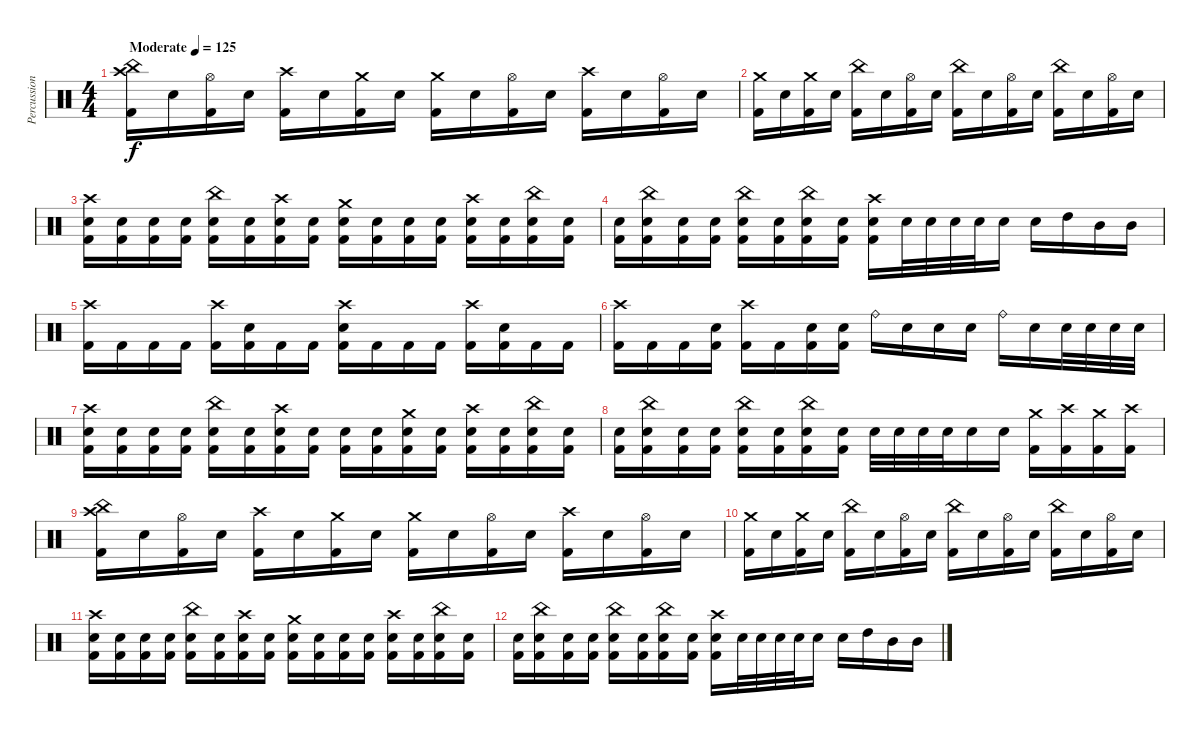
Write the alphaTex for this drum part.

\track ("Percussion" "Percussion") {instrument percussion}
\staff {score}
\articulation defaults
\ts (4 4)
\tempo (125 "Moderate")
\clef neutral
\ks c
("China (hit)" "Crash high (hit)" "Kick (hit) 2").16{dy f} "Electric Snare (hit)".16 ("Hi-Hat (open)" "Kick (hit) 2").16 "Electric Snare (hit)".16 ("Crash high (hit)" "Kick (hit) 2").16 "Electric Snare (hit)".16 ("Crash medium (hit)" "Kick (hit) 2").16 "Electric Snare (hit)".16 ("Crash medium (hit)" "Kick (hit) 2").16 "Electric Snare (hit)".16 ("Hi-Hat (open)" "Kick (hit) 2").16 "Electric Snare (hit)".16 ("Crash high (hit)" "Kick (hit) 2").16 "Electric Snare (hit)".16 ("Hi-Hat (open)" "Kick (hit) 2").16 "Electric Snare (hit)".16 |
("Crash medium (hit)" "Kick (hit) 2").16 "Electric Snare (hit)".16 ("Crash medium (hit)" "Kick (hit) 2").16 "Electric Snare (hit)".16 ("China (hit)" "Kick (hit) 2").16 "Electric Snare (hit)".16 ("Hi-Hat (open)" "Kick (hit) 2").16 "Electric Snare (hit)".16 ("China (hit)" "Kick (hit) 2").16 "Electric Snare (hit)".16 ("Hi-Hat (open)" "Kick (hit) 2").16 "Electric Snare (hit)".16 ("China (hit)" "Kick (hit) 2").16 "Electric Snare (hit)".16 ("Hi-Hat (open)" "Kick (hit) 2").16 "Electric Snare (hit)".16 |
("Crash high (hit)" "Electric Snare (hit)" "Kick (hit) 2").16 ("Electric Snare (hit)" "Kick (hit) 2").16 ("Electric Snare (hit)" "Kick (hit) 2").16 ("Electric Snare (hit)" "Kick (hit) 2").16 ("China (hit)" "Electric Snare (hit)" "Kick (hit) 2").16 ("Electric Snare (hit)" "Kick (hit) 2").16 ("Crash high (hit)" "Electric Snare (hit)" "Kick (hit) 2").16 ("Electric Snare (hit)" "Kick (hit) 2").16 ("Crash medium (hit)" "Electric Snare (hit)" "Kick (hit) 2").16 ("Electric Snare (hit)" "Kick (hit) 2").16 ("Electric Snare (hit)" "Kick (hit) 2").16 ("Electric Snare (hit)" "Kick (hit) 2").16 ("Crash high (hit)" "Electric Snare (hit)" "Kick (hit) 2").16 ("Electric Snare (hit)" "Kick (hit) 2").16 ("China (hit)" "Electric Snare (hit)" "Kick (hit) 2").16 ("Electric Snare (hit)" "Kick (hit) 2").16 |
("Electric Snare (hit)" "Kick (hit) 2").16 ("China (hit)" "Electric Snare (hit)" "Kick (hit) 2").16 ("Electric Snare (hit)" "Kick (hit) 2").16 ("Electric Snare (hit)" "Kick (hit) 2").16 ("China (hit)" "Electric Snare (hit)" "Kick (hit) 2").16 ("Electric Snare (hit)" "Kick (hit) 2").16 ("China (hit)" "Electric Snare (hit)" "Kick (hit) 2").16 ("Electric Snare (hit)" "Kick (hit) 2").16 ("Crash high (hit)" "Electric Snare (hit)" "Kick (hit) 2").16 "Electric Snare (hit)".32 "Electric Snare (hit)".32 "Electric Snare (hit)".32 "Electric Snare (hit)".32 "Electric Snare (hit)".16 "Electric Snare (hit)".16 "High Tom (hit)".16 "Mid Tom (hit)".16 "Mid Tom (hit)".16 |
("Crash high (hit)" "Kick (hit) 2").16 "Kick (hit) 2".16 "Kick (hit) 2".16 "Kick (hit) 2".16 ("Crash high (hit)" "Kick (hit) 2").16 ("Electric Snare (hit)" "Kick (hit) 2").16 "Kick (hit) 2".16 "Kick (hit) 2".16 ("Crash high (hit)" "Electric Snare (hit)" "Kick (hit) 2").16 "Kick (hit) 2".16 "Kick (hit) 2".16 "Kick (hit) 2".16 ("Crash high (hit)" "Kick (hit) 2").16 ("Electric Snare (hit)" "Kick (hit) 2").16 "Kick (hit) 2".16 "Kick (hit) 2".16 |
("Crash high (hit)" "Kick (hit) 2").16 "Kick (hit) 2".16 "Kick (hit) 2".16 ("Electric Snare (hit)" "Kick (hit) 2").16 ("Crash high (hit)" "Kick (hit) 2").16 "Kick (hit) 2".16 ("Electric Snare (hit)" "Kick (hit) 2").16 ("Electric Snare (hit)" "Kick (hit) 2").16 "Ride (bell)".16 "Electric Snare (hit)".16 "Electric Snare (hit)".16 "Electric Snare (hit)".16 "Ride (bell)".16 "Electric Snare (hit)".16 "Electric Snare (hit)".32 "Electric Snare (hit)".32 "Electric Snare (hit)".32 "Electric Snare (hit)".32 |
("Crash high (hit)" "Electric Snare (hit)" "Kick (hit) 2").16 ("Electric Snare (hit)" "Kick (hit) 2").16 ("Electric Snare (hit)" "Kick (hit) 2").16 ("Electric Snare (hit)" "Kick (hit) 2").16 ("China (hit)" "Electric Snare (hit)" "Kick (hit) 2").16 ("Electric Snare (hit)" "Kick (hit) 2").16 ("Crash high (hit)" "Electric Snare (hit)" "Kick (hit) 2").16 ("Electric Snare (hit)" "Kick (hit) 2").16 ("Electric Snare (hit)" "Kick (hit) 2").16 ("Electric Snare (hit)" "Kick (hit) 2").16 ("Crash medium (hit)" "Electric Snare (hit)" "Kick (hit) 2").16 ("Electric Snare (hit)" "Kick (hit) 2").16 ("Crash high (hit)" "Electric Snare (hit)" "Kick (hit) 2").16 ("Electric Snare (hit)" "Kick (hit) 2").16 ("China (hit)" "Electric Snare (hit)" "Kick (hit) 2").16 ("Electric Snare (hit)" "Kick (hit) 2").16 |
("Electric Snare (hit)" "Kick (hit) 2").16 ("China (hit)" "Electric Snare (hit)" "Kick (hit) 2").16 ("Electric Snare (hit)" "Kick (hit) 2").16 ("Electric Snare (hit)" "Kick (hit) 2").16 ("China (hit)" "Electric Snare (hit)" "Kick (hit) 2").16 ("Electric Snare (hit)" "Kick (hit) 2").16 ("China (hit)" "Electric Snare (hit)" "Kick (hit) 2").16 ("Electric Snare (hit)" "Kick (hit) 2").16 "Electric Snare (hit)".32 "Electric Snare (hit)".32 "Electric Snare (hit)".32 "Electric Snare (hit)".32 "Electric Snare (hit)".16 "Electric Snare (hit)".16 ("Crash medium (hit)" "Kick (hit) 2").16 ("Crash high (hit)" "Kick (hit) 2").16 ("Crash medium (hit)" "Kick (hit) 2").16 ("Crash high (hit)" "Kick (hit) 2").16 |
("China (hit)" "Crash high (hit)" "Kick (hit) 2").16 "Electric Snare (hit)".16 ("Hi-Hat (open)" "Kick (hit) 2").16 "Electric Snare (hit)".16 ("Crash high (hit)" "Kick (hit) 2").16 "Electric Snare (hit)".16 ("Crash medium (hit)" "Kick (hit) 2").16 "Electric Snare (hit)".16 ("Crash medium (hit)" "Kick (hit) 2").16 "Electric Snare (hit)".16 ("Hi-Hat (open)" "Kick (hit) 2").16 "Electric Snare (hit)".16 ("Crash high (hit)" "Kick (hit) 2").16 "Electric Snare (hit)".16 ("Hi-Hat (open)" "Kick (hit) 2").16 "Electric Snare (hit)".16 |
("Crash medium (hit)" "Kick (hit) 2").16 "Electric Snare (hit)".16 ("Crash medium (hit)" "Kick (hit) 2").16 "Electric Snare (hit)".16 ("China (hit)" "Kick (hit) 2").16 "Electric Snare (hit)".16 ("Hi-Hat (open)" "Kick (hit) 2").16 "Electric Snare (hit)".16 ("China (hit)" "Kick (hit) 2").16 "Electric Snare (hit)".16 ("Hi-Hat (open)" "Kick (hit) 2").16 "Electric Snare (hit)".16 ("China (hit)" "Kick (hit) 2").16 "Electric Snare (hit)".16 ("Hi-Hat (open)" "Kick (hit) 2").16 "Electric Snare (hit)".16 |
("Crash high (hit)" "Electric Snare (hit)" "Kick (hit) 2").16 ("Electric Snare (hit)" "Kick (hit) 2").16 ("Electric Snare (hit)" "Kick (hit) 2").16 ("Electric Snare (hit)" "Kick (hit) 2").16 ("China (hit)" "Electric Snare (hit)" "Kick (hit) 2").16 ("Electric Snare (hit)" "Kick (hit) 2").16 ("Crash high (hit)" "Electric Snare (hit)" "Kick (hit) 2").16 ("Electric Snare (hit)" "Kick (hit) 2").16 ("Crash medium (hit)" "Electric Snare (hit)" "Kick (hit) 2").16 ("Electric Snare (hit)" "Kick (hit) 2").16 ("Electric Snare (hit)" "Kick (hit) 2").16 ("Electric Snare (hit)" "Kick (hit) 2").16 ("Crash high (hit)" "Electric Snare (hit)" "Kick (hit) 2").16 ("Electric Snare (hit)" "Kick (hit) 2").16 ("China (hit)" "Electric Snare (hit)" "Kick (hit) 2").16 ("Electric Snare (hit)" "Kick (hit) 2").16 |
("Electric Snare (hit)" "Kick (hit) 2").16 ("China (hit)" "Electric Snare (hit)" "Kick (hit) 2").16 ("Electric Snare (hit)" "Kick (hit) 2").16 ("Electric Snare (hit)" "Kick (hit) 2").16 ("China (hit)" "Electric Snare (hit)" "Kick (hit) 2").16 ("Electric Snare (hit)" "Kick (hit) 2").16 ("China (hit)" "Electric Snare (hit)" "Kick (hit) 2").16 ("Electric Snare (hit)" "Kick (hit) 2").16 ("Crash high (hit)" "Electric Snare (hit)" "Kick (hit) 2").16 "Electric Snare (hit)".32 "Electric Snare (hit)".32 "Electric Snare (hit)".32 "Electric Snare (hit)".32 "Electric Snare (hit)".16 "Electric Snare (hit)".16 "High Tom (hit)".16 "Mid Tom (hit)".16 "Mid Tom (hit)".16
